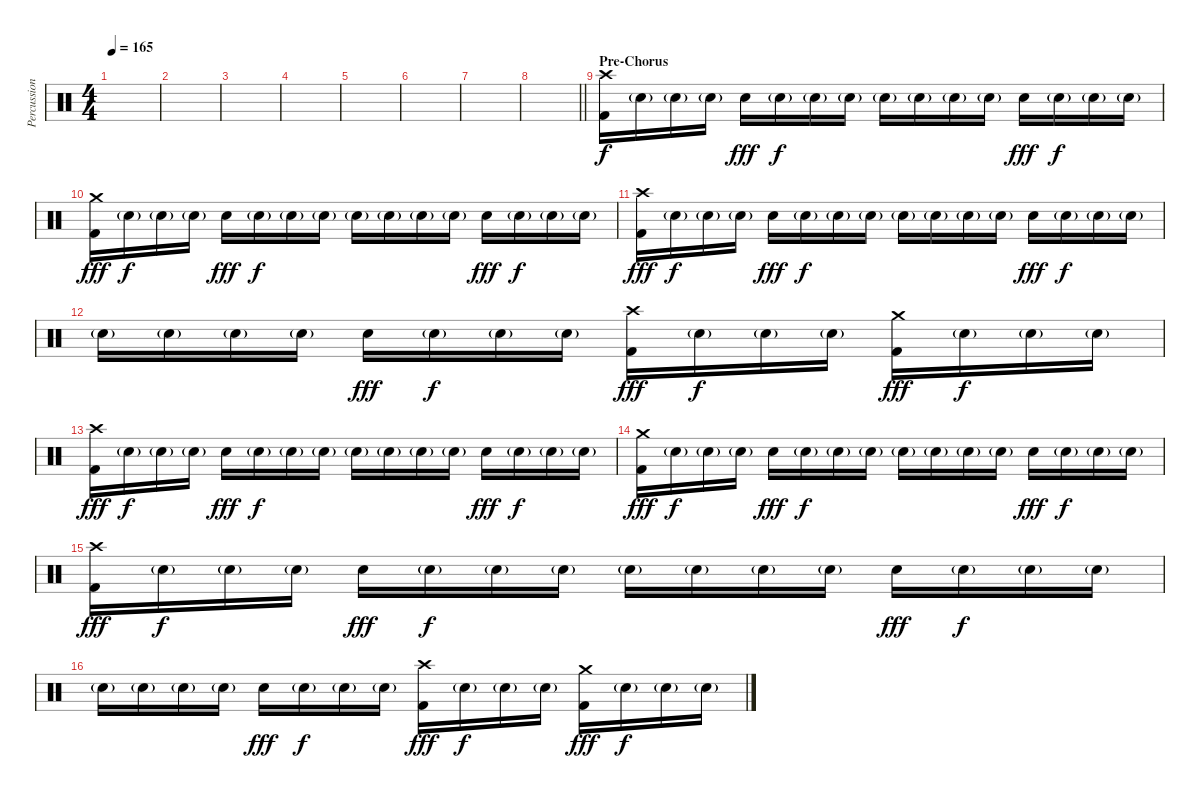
\track ("Percussion" "Percussion") {instrument percussion}
\staff {score}
\articulation defaults
\ts (4 4)
\tempo 165
\clef neutral
\ks c
|
|
|
|
|
|
|
\barLineRight lightlight
|
\section ("" "Pre-Chorus")
("Crash high (hit)" "Kick (hit) 2").16 "Electric Snare (hit)"{g}.16{dy f} "Electric Snare (hit)"{g}.16 "Electric Snare (hit)"{g}.16 "Electric Snare (hit)".16{dy fff} "Electric Snare (hit)"{g}.16{dy f} "Electric Snare (hit)"{g}.16 "Electric Snare (hit)"{g}.16 "Electric Snare (hit)"{g}.16 "Electric Snare (hit)"{g}.16 "Electric Snare (hit)"{g}.16 "Electric Snare (hit)"{g}.16 "Electric Snare (hit)".16{dy fff} "Electric Snare (hit)"{g}.16{dy f} "Electric Snare (hit)"{g}.16 "Electric Snare (hit)"{g}.16 |
("Crash medium (hit)" "Kick (hit) 2").16{dy fff} "Electric Snare (hit)"{g}.16{dy f} "Electric Snare (hit)"{g}.16 "Electric Snare (hit)"{g}.16 "Electric Snare (hit)".16{dy fff} "Electric Snare (hit)"{g}.16{dy f} "Electric Snare (hit)"{g}.16 "Electric Snare (hit)"{g}.16 "Electric Snare (hit)"{g}.16 "Electric Snare (hit)"{g}.16 "Electric Snare (hit)"{g}.16 "Electric Snare (hit)"{g}.16 "Electric Snare (hit)".16{dy fff} "Electric Snare (hit)"{g}.16{dy f} "Electric Snare (hit)"{g}.16 "Electric Snare (hit)"{g}.16 |
("Crash high (hit)" "Kick (hit) 2").16{dy fff} "Electric Snare (hit)"{g}.16{dy f} "Electric Snare (hit)"{g}.16 "Electric Snare (hit)"{g}.16 "Electric Snare (hit)".16{dy fff} "Electric Snare (hit)"{g}.16{dy f} "Electric Snare (hit)"{g}.16 "Electric Snare (hit)"{g}.16 "Electric Snare (hit)"{g}.16 "Electric Snare (hit)"{g}.16 "Electric Snare (hit)"{g}.16 "Electric Snare (hit)"{g}.16 "Electric Snare (hit)".16{dy fff} "Electric Snare (hit)"{g}.16{dy f} "Electric Snare (hit)"{g}.16 "Electric Snare (hit)"{g}.16 |
"Electric Snare (hit)"{g}.16 "Electric Snare (hit)"{g}.16 "Electric Snare (hit)"{g}.16 "Electric Snare (hit)"{g}.16 "Electric Snare (hit)".16{dy fff} "Electric Snare (hit)"{g}.16{dy f} "Electric Snare (hit)"{g}.16 "Electric Snare (hit)"{g}.16 ("Crash high (hit)" "Kick (hit) 2").16{dy fff} "Electric Snare (hit)"{g}.16{dy f} "Electric Snare (hit)"{g}.16 "Electric Snare (hit)"{g}.16 ("Crash medium (hit)" "Kick (hit) 2").16{dy fff} "Electric Snare (hit)"{g}.16{dy f} "Electric Snare (hit)"{g}.16 "Electric Snare (hit)"{g}.16 |
("Crash high (hit)" "Kick (hit) 2").16{dy fff} "Electric Snare (hit)"{g}.16{dy f} "Electric Snare (hit)"{g}.16 "Electric Snare (hit)"{g}.16 "Electric Snare (hit)".16{dy fff} "Electric Snare (hit)"{g}.16{dy f} "Electric Snare (hit)"{g}.16 "Electric Snare (hit)"{g}.16 "Electric Snare (hit)"{g}.16 "Electric Snare (hit)"{g}.16 "Electric Snare (hit)"{g}.16 "Electric Snare (hit)"{g}.16 "Electric Snare (hit)".16{dy fff} "Electric Snare (hit)"{g}.16{dy f} "Electric Snare (hit)"{g}.16 "Electric Snare (hit)"{g}.16 |
("Crash medium (hit)" "Kick (hit) 2").16{dy fff} "Electric Snare (hit)"{g}.16{dy f} "Electric Snare (hit)"{g}.16 "Electric Snare (hit)"{g}.16 "Electric Snare (hit)".16{dy fff} "Electric Snare (hit)"{g}.16{dy f} "Electric Snare (hit)"{g}.16 "Electric Snare (hit)"{g}.16 "Electric Snare (hit)"{g}.16 "Electric Snare (hit)"{g}.16 "Electric Snare (hit)"{g}.16 "Electric Snare (hit)"{g}.16 "Electric Snare (hit)".16{dy fff} "Electric Snare (hit)"{g}.16{dy f} "Electric Snare (hit)"{g}.16 "Electric Snare (hit)"{g}.16 |
("Crash high (hit)" "Kick (hit) 2").16{dy fff} "Electric Snare (hit)"{g}.16{dy f} "Electric Snare (hit)"{g}.16 "Electric Snare (hit)"{g}.16 "Electric Snare (hit)".16{dy fff} "Electric Snare (hit)"{g}.16{dy f} "Electric Snare (hit)"{g}.16 "Electric Snare (hit)"{g}.16 "Electric Snare (hit)"{g}.16 "Electric Snare (hit)"{g}.16 "Electric Snare (hit)"{g}.16 "Electric Snare (hit)"{g}.16 "Electric Snare (hit)".16{dy fff} "Electric Snare (hit)"{g}.16{dy f} "Electric Snare (hit)"{g}.16 "Electric Snare (hit)"{g}.16 |
"Electric Snare (hit)"{g}.16 "Electric Snare (hit)"{g}.16 "Electric Snare (hit)"{g}.16 "Electric Snare (hit)"{g}.16 "Electric Snare (hit)".16{dy fff} "Electric Snare (hit)"{g}.16{dy f} "Electric Snare (hit)"{g}.16 "Electric Snare (hit)"{g}.16 ("Crash high (hit)" "Kick (hit) 2").16{dy fff} "Electric Snare (hit)"{g}.16{dy f} "Electric Snare (hit)"{g}.16 "Electric Snare (hit)"{g}.16 ("Crash medium (hit)" "Kick (hit) 2").16{dy fff} "Electric Snare (hit)"{g}.16{dy f} "Electric Snare (hit)"{g}.16 "Electric Snare (hit)"{g}.16
